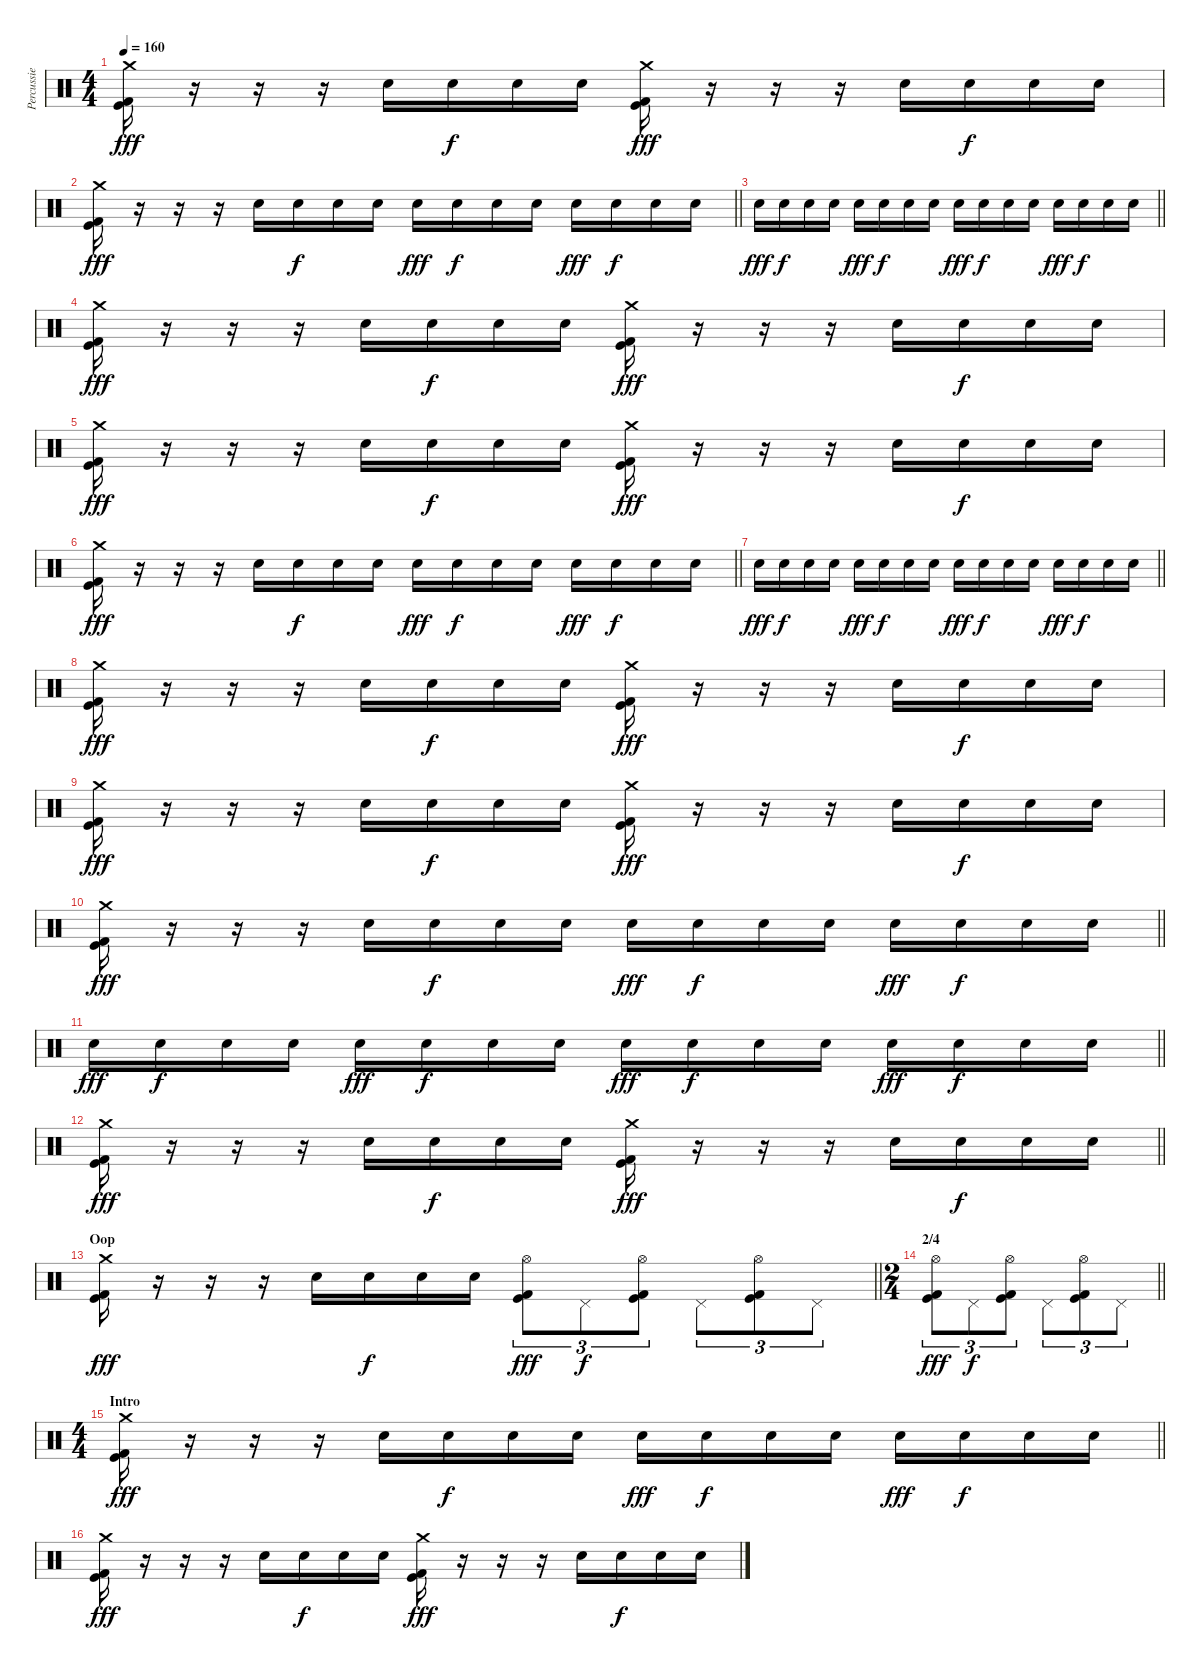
\track ("Percussie" "Percussie") {instrument percussion}
\staff {score}
\articulation defaults
\ts (4 4)
\tempo 160
\clef neutral
\ks c
("Crash medium (hit)" "Kick (hit)" "Kick (hit) 2").16{dy fff} r.16 r.16 r.16 "Snare (hit) 2".16 "Snare (hit) 2".16{dy f} "Snare (hit) 2".16 "Snare (hit) 2".16 ("Crash medium (hit)" "Kick (hit)" "Kick (hit) 2").16{dy fff} r.16 r.16 r.16 "Snare (hit) 2".16 "Snare (hit) 2".16{dy f} "Snare (hit) 2".16 "Snare (hit) 2".16 |
\barLineRight lightlight
("Crash medium (hit)" "Kick (hit)" "Kick (hit) 2").16{dy fff} r.16 r.16 r.16 "Snare (hit) 2".16 "Snare (hit) 2".16{dy f} "Snare (hit) 2".16 "Snare (hit) 2".16 "Snare (hit) 2".16{dy fff} "Snare (hit) 2".16{dy f} "Snare (hit) 2".16 "Snare (hit) 2".16 "Snare (hit) 2".16{dy fff} "Snare (hit) 2".16{dy f} "Snare (hit) 2".16 "Snare (hit) 2".16 |
\barLineRight lightlight "Snare (hit) 2".16{dy fff} "Snare (hit) 2".16{dy f} "Snare (hit) 2".16 "Snare (hit) 2".16 "Snare (hit) 2".16{dy fff} "Snare (hit) 2".16{dy f} "Snare (hit) 2".16 "Snare (hit) 2".16 "Snare (hit) 2".16{dy fff} "Snare (hit) 2".16{dy f} "Snare (hit) 2".16 "Snare (hit) 2".16 "Snare (hit) 2".16{dy fff} "Snare (hit) 2".16{dy f} "Snare (hit) 2".16 "Snare (hit) 2".16
|
("Crash medium (hit)" "Kick (hit)" "Kick (hit) 2").16{dy fff} r.16 r.16 r.16 "Snare (hit) 2".16 "Snare (hit) 2".16{dy f} "Snare (hit) 2".16 "Snare (hit) 2".16 ("Crash medium (hit)" "Kick (hit)" "Kick (hit) 2").16{dy fff} r.16 r.16 r.16 "Snare (hit) 2".16 "Snare (hit) 2".16{dy f} "Snare (hit) 2".16 "Snare (hit) 2".16 |
("Crash medium (hit)" "Kick (hit)" "Kick (hit) 2").16{dy fff} r.16 r.16 r.16 "Snare (hit) 2".16 "Snare (hit) 2".16{dy f} "Snare (hit) 2".16 "Snare (hit) 2".16 ("Crash medium (hit)" "Kick (hit)" "Kick (hit) 2").16{dy fff} r.16 r.16 r.16 "Snare (hit) 2".16 "Snare (hit) 2".16{dy f} "Snare (hit) 2".16 "Snare (hit) 2".16 |
\barLineRight lightlight
("Crash medium (hit)" "Kick (hit)" "Kick (hit) 2").16{dy fff} r.16 r.16 r.16 "Snare (hit) 2".16 "Snare (hit) 2".16{dy f} "Snare (hit) 2".16 "Snare (hit) 2".16 "Snare (hit) 2".16{dy fff} "Snare (hit) 2".16{dy f} "Snare (hit) 2".16 "Snare (hit) 2".16 "Snare (hit) 2".16{dy fff} "Snare (hit) 2".16{dy f} "Snare (hit) 2".16 "Snare (hit) 2".16 |
\barLineRight lightlight "Snare (hit) 2".16{dy fff} "Snare (hit) 2".16{dy f} "Snare (hit) 2".16 "Snare (hit) 2".16 "Snare (hit) 2".16{dy fff} "Snare (hit) 2".16{dy f} "Snare (hit) 2".16 "Snare (hit) 2".16 "Snare (hit) 2".16{dy fff} "Snare (hit) 2".16{dy f} "Snare (hit) 2".16 "Snare (hit) 2".16 "Snare (hit) 2".16{dy fff} "Snare (hit) 2".16{dy f} "Snare (hit) 2".16 "Snare (hit) 2".16
|
("Crash medium (hit)" "Kick (hit)" "Kick (hit) 2").16{dy fff} r.16 r.16 r.16 "Snare (hit) 2".16 "Snare (hit) 2".16{dy f} "Snare (hit) 2".16 "Snare (hit) 2".16 ("Crash medium (hit)" "Kick (hit)" "Kick (hit) 2").16{dy fff} r.16 r.16 r.16 "Snare (hit) 2".16 "Snare (hit) 2".16{dy f} "Snare (hit) 2".16 "Snare (hit) 2".16 |
("Crash medium (hit)" "Kick (hit)" "Kick (hit) 2").16{dy fff} r.16 r.16 r.16 "Snare (hit) 2".16 "Snare (hit) 2".16{dy f} "Snare (hit) 2".16 "Snare (hit) 2".16 ("Crash medium (hit)" "Kick (hit)" "Kick (hit) 2").16{dy fff} r.16 r.16 r.16 "Snare (hit) 2".16 "Snare (hit) 2".16{dy f} "Snare (hit) 2".16 "Snare (hit) 2".16 |
\barLineRight lightlight
("Crash medium (hit)" "Kick (hit)" "Kick (hit) 2").16{dy fff} r.16 r.16 r.16 "Snare (hit) 2".16 "Snare (hit) 2".16{dy f} "Snare (hit) 2".16 "Snare (hit) 2".16 "Snare (hit) 2".16{dy fff} "Snare (hit) 2".16{dy f} "Snare (hit) 2".16 "Snare (hit) 2".16 "Snare (hit) 2".16{dy fff} "Snare (hit) 2".16{dy f} "Snare (hit) 2".16 "Snare (hit) 2".16 |
\barLineRight lightlight "Snare (hit) 2".16{dy fff} "Snare (hit) 2".16{dy f} "Snare (hit) 2".16 "Snare (hit) 2".16 "Snare (hit) 2".16{dy fff} "Snare (hit) 2".16{dy f} "Snare (hit) 2".16 "Snare (hit) 2".16 "Snare (hit) 2".16{dy fff} "Snare (hit) 2".16{dy f} "Snare (hit) 2".16 "Snare (hit) 2".16 "Snare (hit) 2".16{dy fff} "Snare (hit) 2".16{dy f} "Snare (hit) 2".16 "Snare (hit) 2".16
|
\barLineRight lightlight
("Crash medium (hit)" "Kick (hit)" "Kick (hit) 2").16{dy fff} r.16 r.16 r.16 "Snare (hit) 2".16 "Snare (hit) 2".16{dy f} "Snare (hit) 2".16 "Snare (hit) 2".16 ("Crash medium (hit)" "Kick (hit)" "Kick (hit) 2").16{dy fff} r.16 r.16 r.16 "Snare (hit) 2".16 "Snare (hit) 2".16{dy f} "Snare (hit) 2".16 "Snare (hit) 2".16 |
\section ("" "Oop")
\barLineRight lightlight
("Crash medium (hit)" "Kick (hit)" "Kick (hit) 2").16{dy fff} r.16 r.16 r.16 "Snare (hit) 2".16 "Snare (hit) 2".16{dy f} "Snare (hit) 2".16 "Snare (hit) 2".16 ("Hi-Hat (open)" "Kick (hit)" "Kick (hit) 2").8{tu (3 2) dy fff} "Pedal Hi-Hat (hit)".8{tu (3 2) dy f} ("Hi-Hat (open)" "Kick (hit)" "Kick (hit) 2").8{tu (3 2)} "Pedal Hi-Hat (hit)".8{tu (3 2)} ("Hi-Hat (open)" "Kick (hit)" "Kick (hit) 2").8{tu (3 2)} "Pedal Hi-Hat (hit)".8{tu (3 2)} |
\ts (2 4)
\section ("" "2/4")
\barLineRight lightlight
("Hi-Hat (open)" "Kick (hit)" "Kick (hit) 2").8{tu (3 2) dy fff} "Pedal Hi-Hat (hit)".8{tu (3 2) dy f} ("Hi-Hat (open)" "Kick (hit)" "Kick (hit) 2").8{tu (3 2)} "Pedal Hi-Hat (hit)".8{tu (3 2)} ("Hi-Hat (open)" "Kick (hit)" "Kick (hit) 2").8{tu (3 2)} "Pedal Hi-Hat (hit)".8{tu (3 2)} |
\ts (4 4)
\section ("" "Intro")
\barLineRight lightlight
("Crash medium (hit)" "Kick (hit)" "Kick (hit) 2").16{dy fff} r.16 r.16 r.16 "Snare (hit) 2".16 "Snare (hit) 2".16{dy f} "Snare (hit) 2".16 "Snare (hit) 2".16 "Snare (hit) 2".16{dy fff} "Snare (hit) 2".16{dy f} "Snare (hit) 2".16 "Snare (hit) 2".16 "Snare (hit) 2".16{dy fff} "Snare (hit) 2".16{dy f} "Snare (hit) 2".16 "Snare (hit) 2".16 |
("Crash medium (hit)" "Kick (hit)" "Kick (hit) 2").16{dy fff} r.16 r.16 r.16 "Snare (hit) 2".16 "Snare (hit) 2".16{dy f} "Snare (hit) 2".16 "Snare (hit) 2".16 ("Crash medium (hit)" "Kick (hit)" "Kick (hit) 2").16{dy fff} r.16 r.16 r.16 "Snare (hit) 2".16 "Snare (hit) 2".16{dy f} "Snare (hit) 2".16 "Snare (hit) 2".16
